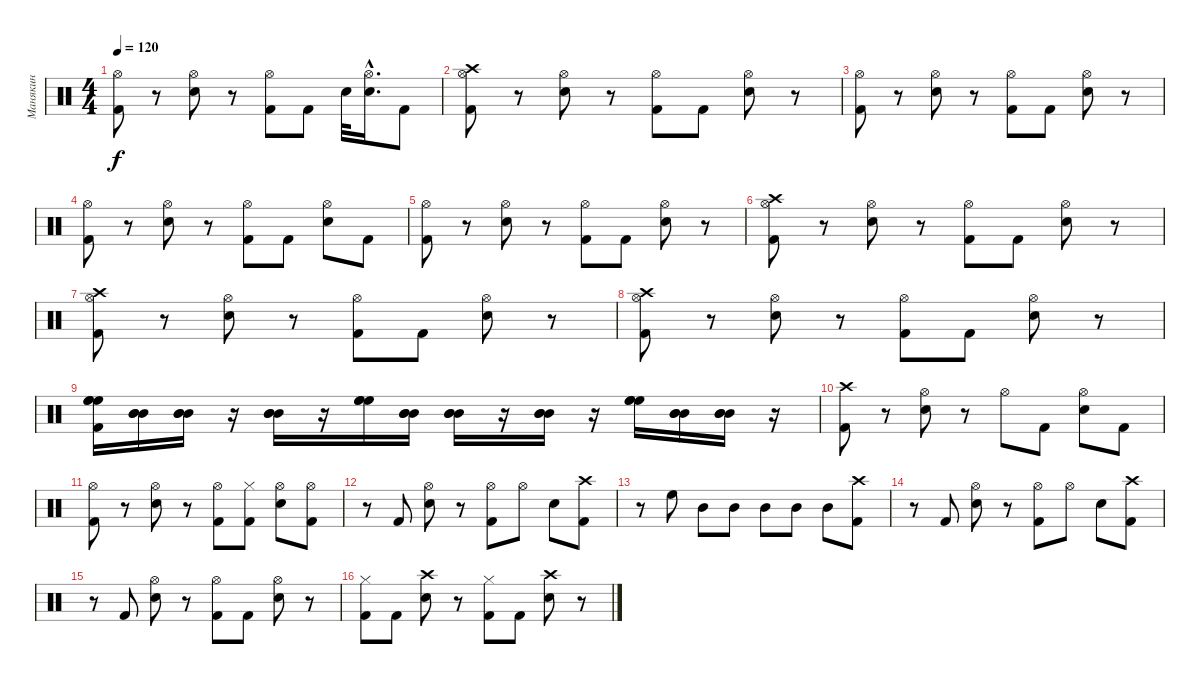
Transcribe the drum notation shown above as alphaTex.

\track ("Манякин" "Манякин") {instrument percussion}
\staff {score}
\articulation defaults
\ts (4 4)
\tempo 120
\clef neutral
\ks c
("Hi-Hat (open)" "Kick (hit) 2").8{dy f} r.8 ("Hi-Hat (open)" "Electric Snare (hit)").8 r.8 ("Hi-Hat (open)" "Kick (hit) 2").8 "Kick (hit) 2".8 "Electric Snare (hit)".32 ("Hi-Hat (open)"{hac} "Electric Snare (hit)"{hac}).16{d} "Kick (hit) 2".8 |
("Crash high (hit)" "Hi-Hat (open)" "Kick (hit) 2").8 r.8 ("Hi-Hat (open)" "Electric Snare (hit)").8 r.8 ("Hi-Hat (open)" "Kick (hit) 2").8 "Kick (hit) 2".8 ("Hi-Hat (open)" "Electric Snare (hit)").8 r.8 |
("Hi-Hat (open)" "Kick (hit) 2").8 r.8 ("Hi-Hat (open)" "Electric Snare (hit)").8 r.8 ("Hi-Hat (open)" "Kick (hit) 2").8 "Kick (hit) 2".8 ("Hi-Hat (open)" "Electric Snare (hit)").8 r.8 |
("Hi-Hat (open)" "Kick (hit) 2").8 r.8 ("Hi-Hat (open)" "Electric Snare (hit)").8 r.8 ("Hi-Hat (open)" "Kick (hit) 2").8 "Kick (hit) 2".8 ("Hi-Hat (open)" "Electric Snare (hit)").8 "Kick (hit) 2".8 |
("Hi-Hat (open)" "Kick (hit) 2").8 r.8 ("Hi-Hat (open)" "Electric Snare (hit)").8 r.8 ("Hi-Hat (open)" "Kick (hit) 2").8 "Kick (hit) 2".8 ("Hi-Hat (open)" "Electric Snare (hit)").8 r.8 |
("Crash high (hit)" "Hi-Hat (open)" "Kick (hit) 2").8 r.8 ("Hi-Hat (open)" "Electric Snare (hit)").8 r.8 ("Hi-Hat (open)" "Kick (hit) 2").8 "Kick (hit) 2".8 ("Hi-Hat (open)" "Electric Snare (hit)").8 r.8 |
("Crash high (hit)" "Hi-Hat (open)" "Kick (hit) 2").8 r.8 ("Hi-Hat (open)" "Electric Snare (hit)").8 r.8 ("Hi-Hat (open)" "Kick (hit) 2").8 "Kick (hit) 2".8 ("Hi-Hat (open)" "Electric Snare (hit)").8 r.8 |
("Crash high (hit)" "Hi-Hat (open)" "Kick (hit) 2").8 r.8 ("Hi-Hat (open)" "Electric Snare (hit)").8 r.8 ("Hi-Hat (open)" "Kick (hit) 2").8 "Kick (hit) 2".8 ("Hi-Hat (open)" "Electric Snare (hit)").8 r.8 |
("High Floor Tom (hit)" "High Floor Tom (hit)" "High Floor Tom (hit)" "Kick (hit) 2").16 ("Mid Tom (hit)" "Mid Tom (hit)" "Mid Tom (hit)").16 ("Mid Tom (hit)" "Mid Tom (hit)" "Mid Tom (hit)").16 r.16 ("Mid Tom (hit)" "Mid Tom (hit)" "Mid Tom (hit)").16 r.16 ("High Floor Tom (hit)" "High Floor Tom (hit)" "High Floor Tom (hit)").16 ("Mid Tom (hit)" "Mid Tom (hit)" "Mid Tom (hit)").16 ("Mid Tom (hit)" "Mid Tom (hit)" "Mid Tom (hit)").16 r.16 ("Mid Tom (hit)" "Mid Tom (hit)" "Mid Tom (hit)").16 r.16 ("High Floor Tom (hit)" "High Floor Tom (hit)" "High Floor Tom (hit)").16 ("Mid Tom (hit)" "Mid Tom (hit)" "Mid Tom (hit)").16 ("Mid Tom (hit)" "Mid Tom (hit)" "Mid Tom (hit)").16 r.16 |
("Crash high (hit)" "Kick (hit) 2").8 r.8 ("Hi-Hat (open)" "Electric Snare (hit)").8 r.8 "Hi-Hat (open)".8 "Kick (hit) 2".8 ("Hi-Hat (open)" "Electric Snare (hit)").8 "Kick (hit) 2".8 |
("Hi-Hat (open)" "Kick (hit) 2").8 r.8 ("Hi-Hat (open)" "Electric Snare (hit)").8 r.8 ("Hi-Hat (open)" "Kick (hit) 2").8 ("Hi-Hat (closed)" "Kick (hit) 2").8 ("Hi-Hat (open)" "Electric Snare (hit)").8 ("Hi-Hat (open)" "Kick (hit) 2").8 |
r.8 "Kick (hit) 2".8 ("Hi-Hat (open)" "Electric Snare (hit)").8 r.8 ("Hi-Hat (open)" "Kick (hit) 2").8 "Hi-Hat (open)".8 "Electric Snare (hit)".8 ("Crash high (hit)" "Kick (hit) 2").8 |
r.8 "High Floor Tom (hit)".8 "Mid Tom (hit)".8 "Mid Tom (hit)".8 "Mid Tom (hit)".8 "Mid Tom (hit)".8 "Mid Tom (hit)".8 ("Crash high (hit)" "Kick (hit) 2").8 |
r.8 "Kick (hit) 2".8 ("Hi-Hat (open)" "Electric Snare (hit)").8 r.8 ("Hi-Hat (open)" "Kick (hit) 2").8 "Hi-Hat (open)".8 "Electric Snare (hit)".8 ("Crash high (hit)" "Kick (hit) 2").8 |
r.8 "Kick (hit) 2".8 ("Hi-Hat (open)" "Electric Snare (hit)").8 r.8 ("Hi-Hat (open)" "Kick (hit) 2").8 "Kick (hit) 2".8 ("Hi-Hat (open)" "Electric Snare (hit)").8 r.8 |
("Hi-Hat (closed)" "Kick (hit) 2").8 "Kick (hit) 2".8 ("Crash high (hit)" "Electric Snare (hit)").8 r.8 ("Hi-Hat (closed)" "Kick (hit) 2").8 "Kick (hit) 2".8 ("Crash high (hit)" "Electric Snare (hit)").8 r.8
